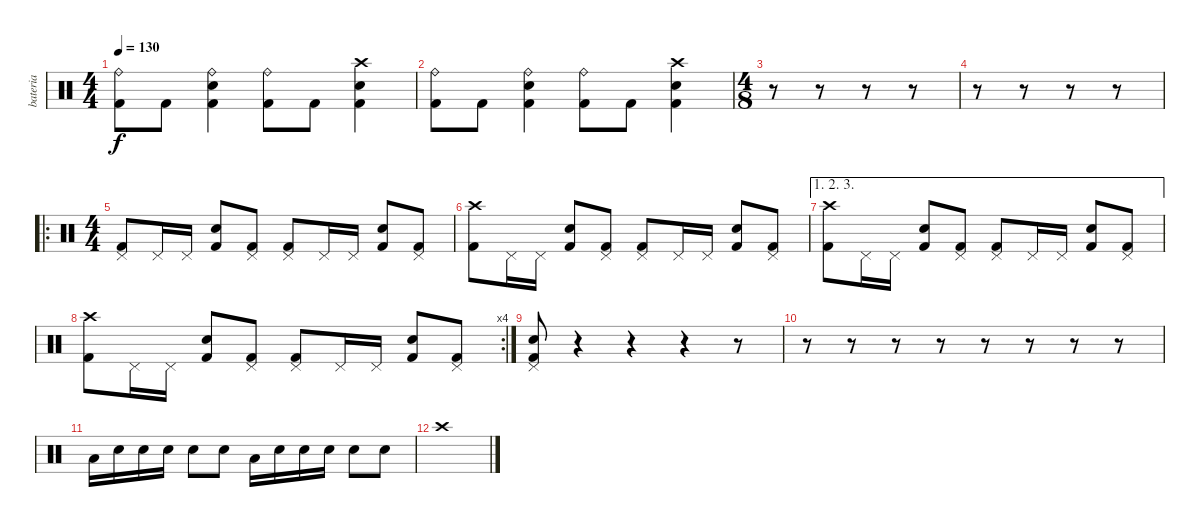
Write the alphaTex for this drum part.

\track ("bateria" "bateria") {instrument percussion}
\staff {score}
\articulation defaults
\ts (4 4)
\tempo 130
\clef neutral
\ks c
("Ride (bell)" "Kick (hit) 2").8{dy f} "Kick (hit) 2".8 ("Ride (bell)" "Snare (hit) 2" "Kick (hit) 2").4 ("Ride (bell)" "Kick (hit) 2").8 "Kick (hit) 2".8 ("Crash high (hit)" "Snare (hit) 2" "Kick (hit) 2").4 |
("Ride (bell)" "Kick (hit) 2").8 "Kick (hit) 2".8 ("Ride (bell)" "Snare (hit) 2" "Kick (hit) 2").4 ("Ride (bell)" "Kick (hit) 2").8 "Kick (hit) 2".8 ("Crash high (hit)" "Snare (hit) 2" "Kick (hit) 2").4 |
\ts (4 8)
r.8 r.8 r.8 r.8 |
r.8 r.8 r.8 r.8 |
\ro
\ts (4 4)
("Pedal Hi-Hat (hit)" "Kick (hit) 2").8 "Pedal Hi-Hat (hit)".16 "Pedal Hi-Hat (hit)".16 ("Snare (hit) 2" "Kick (hit) 2").8 ("Pedal Hi-Hat (hit)" "Kick (hit) 2").8 ("Pedal Hi-Hat (hit)" "Kick (hit) 2").8 "Pedal Hi-Hat (hit)".16 "Pedal Hi-Hat (hit)".16 ("Snare (hit) 2" "Kick (hit) 2").8 ("Pedal Hi-Hat (hit)" "Kick (hit) 2").8 |
("Crash high (hit)" "Kick (hit) 2").8 "Pedal Hi-Hat (hit)".16 "Pedal Hi-Hat (hit)".16 ("Snare (hit) 2" "Kick (hit) 2").8 ("Pedal Hi-Hat (hit)" "Kick (hit) 2").8 ("Pedal Hi-Hat (hit)" "Kick (hit) 2").8 "Pedal Hi-Hat (hit)".16 "Pedal Hi-Hat (hit)".16 ("Snare (hit) 2" "Kick (hit) 2").8 ("Pedal Hi-Hat (hit)" "Kick (hit) 2").8 |
\ae (1 2 3)
("Crash high (hit)" "Kick (hit) 2").8 "Pedal Hi-Hat (hit)".16 "Pedal Hi-Hat (hit)".16 ("Snare (hit) 2" "Kick (hit) 2").8 ("Pedal Hi-Hat (hit)" "Kick (hit) 2").8 ("Pedal Hi-Hat (hit)" "Kick (hit) 2").8 "Pedal Hi-Hat (hit)".16 "Pedal Hi-Hat (hit)".16 ("Snare (hit) 2" "Kick (hit) 2").8 ("Pedal Hi-Hat (hit)" "Kick (hit) 2").8 |
\rc 4
("Crash high (hit)" "Kick (hit) 2").8 "Pedal Hi-Hat (hit)".16 "Pedal Hi-Hat (hit)".16 ("Snare (hit) 2" "Kick (hit) 2").8 ("Pedal Hi-Hat (hit)" "Kick (hit) 2").8 ("Pedal Hi-Hat (hit)" "Kick (hit) 2").8 "Pedal Hi-Hat (hit)".16 "Pedal Hi-Hat (hit)".16 ("Snare (hit) 2" "Kick (hit) 2").8 ("Pedal Hi-Hat (hit)" "Kick (hit) 2").8 |
("Pedal Hi-Hat (hit)" "Snare (hit) 2" "Kick (hit) 2").8 r.4 r.4 r.4 r.8 |
r.8 r.8 r.8 r.8 r.8 r.8 r.8 r.8 |
"Low Tom (hit)".16 "Snare (hit) 2".16 "Snare (hit) 2".16 "Snare (hit) 2".16 "Snare (hit) 2".8 "Snare (hit) 2".8 "Low Tom (hit)".16 "Snare (hit) 2".16 "Snare (hit) 2".16 "Snare (hit) 2".16 "Snare (hit) 2".8 "Snare (hit) 2".8 |
"Crash high (hit)".1
